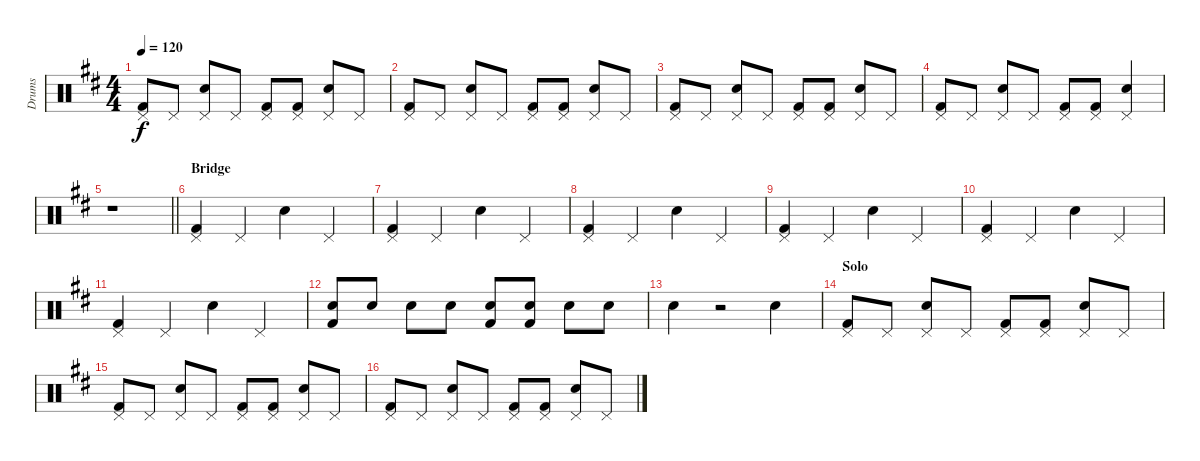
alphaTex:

\track ("Drums" "Drums") {instrument percussion}
\staff {score}
\articulation defaults
\ts (4 4)
\tempo 120
\clef neutral
\ks d
("Pedal Hi-Hat (hit)" "Kick (hit) 2").8{dy f} "Pedal Hi-Hat (hit)".8 ("Pedal Hi-Hat (hit)" "Electric Snare (hit)").8 "Pedal Hi-Hat (hit)".8 ("Pedal Hi-Hat (hit)" "Kick (hit) 2").8 ("Pedal Hi-Hat (hit)" "Kick (hit) 2").8 ("Pedal Hi-Hat (hit)" "Electric Snare (hit)").8 "Pedal Hi-Hat (hit)".8 |
("Pedal Hi-Hat (hit)" "Kick (hit) 2").8 "Pedal Hi-Hat (hit)".8 ("Pedal Hi-Hat (hit)" "Electric Snare (hit)").8 "Pedal Hi-Hat (hit)".8 ("Pedal Hi-Hat (hit)" "Kick (hit) 2").8 ("Pedal Hi-Hat (hit)" "Kick (hit) 2").8 ("Pedal Hi-Hat (hit)" "Electric Snare (hit)").8 "Pedal Hi-Hat (hit)".8 |
("Pedal Hi-Hat (hit)" "Kick (hit) 2").8 "Pedal Hi-Hat (hit)".8 ("Pedal Hi-Hat (hit)" "Electric Snare (hit)").8 "Pedal Hi-Hat (hit)".8 ("Pedal Hi-Hat (hit)" "Kick (hit) 2").8 ("Pedal Hi-Hat (hit)" "Kick (hit) 2").8 ("Pedal Hi-Hat (hit)" "Electric Snare (hit)").8 "Pedal Hi-Hat (hit)".8 |
("Pedal Hi-Hat (hit)" "Kick (hit) 2").8 "Pedal Hi-Hat (hit)".8 ("Pedal Hi-Hat (hit)" "Electric Snare (hit)").8 "Pedal Hi-Hat (hit)".8 ("Pedal Hi-Hat (hit)" "Kick (hit) 2").8 ("Pedal Hi-Hat (hit)" "Kick (hit) 2").8 ("Pedal Hi-Hat (hit)" "Electric Snare (hit)").4 |
\barLineRight lightlight
r.1 |
\section ("" "Bridge")
("Pedal Hi-Hat (hit)" "Kick (hit) 2").4 "Pedal Hi-Hat (hit)".4 "Electric Snare (hit)".4 "Pedal Hi-Hat (hit)".4 |
("Pedal Hi-Hat (hit)" "Kick (hit) 2").4 "Pedal Hi-Hat (hit)".4 "Electric Snare (hit)".4 "Pedal Hi-Hat (hit)".4 |
("Pedal Hi-Hat (hit)" "Kick (hit) 2").4 "Pedal Hi-Hat (hit)".4 "Electric Snare (hit)".4 "Pedal Hi-Hat (hit)".4 |
("Pedal Hi-Hat (hit)" "Kick (hit) 2").4 "Pedal Hi-Hat (hit)".4 "Electric Snare (hit)".4 "Pedal Hi-Hat (hit)".4 |
("Pedal Hi-Hat (hit)" "Kick (hit) 2").4 "Pedal Hi-Hat (hit)".4 "Electric Snare (hit)".4 "Pedal Hi-Hat (hit)".4 |
("Pedal Hi-Hat (hit)" "Kick (hit) 2").4 "Pedal Hi-Hat (hit)".4 "Electric Snare (hit)".4 "Pedal Hi-Hat (hit)".4 |
("Electric Snare (hit)" "Kick (hit) 2").8 "Electric Snare (hit)".8 "Electric Snare (hit)".8 "Electric Snare (hit)".8 ("Electric Snare (hit)" "Kick (hit) 2").8 ("Electric Snare (hit)" "Kick (hit) 2").8 "Electric Snare (hit)".8 "Electric Snare (hit)".8 |
"Electric Snare (hit)".4 r.2 "Electric Snare (hit)".4 |
\section ("" "Solo")
("Pedal Hi-Hat (hit)" "Kick (hit) 2").8 "Pedal Hi-Hat (hit)".8 ("Pedal Hi-Hat (hit)" "Electric Snare (hit)").8 "Pedal Hi-Hat (hit)".8 ("Pedal Hi-Hat (hit)" "Kick (hit) 2").8 ("Pedal Hi-Hat (hit)" "Kick (hit) 2").8 ("Pedal Hi-Hat (hit)" "Electric Snare (hit)").8 "Pedal Hi-Hat (hit)".8 |
("Pedal Hi-Hat (hit)" "Kick (hit) 2").8 "Pedal Hi-Hat (hit)".8 ("Pedal Hi-Hat (hit)" "Electric Snare (hit)").8 "Pedal Hi-Hat (hit)".8 ("Pedal Hi-Hat (hit)" "Kick (hit) 2").8 ("Pedal Hi-Hat (hit)" "Kick (hit) 2").8 ("Pedal Hi-Hat (hit)" "Electric Snare (hit)").8 "Pedal Hi-Hat (hit)".8 |
("Pedal Hi-Hat (hit)" "Kick (hit) 2").8 "Pedal Hi-Hat (hit)".8 ("Pedal Hi-Hat (hit)" "Electric Snare (hit)").8 "Pedal Hi-Hat (hit)".8 ("Pedal Hi-Hat (hit)" "Kick (hit) 2").8 ("Pedal Hi-Hat (hit)" "Kick (hit) 2").8 ("Pedal Hi-Hat (hit)" "Electric Snare (hit)").8 "Pedal Hi-Hat (hit)".8
